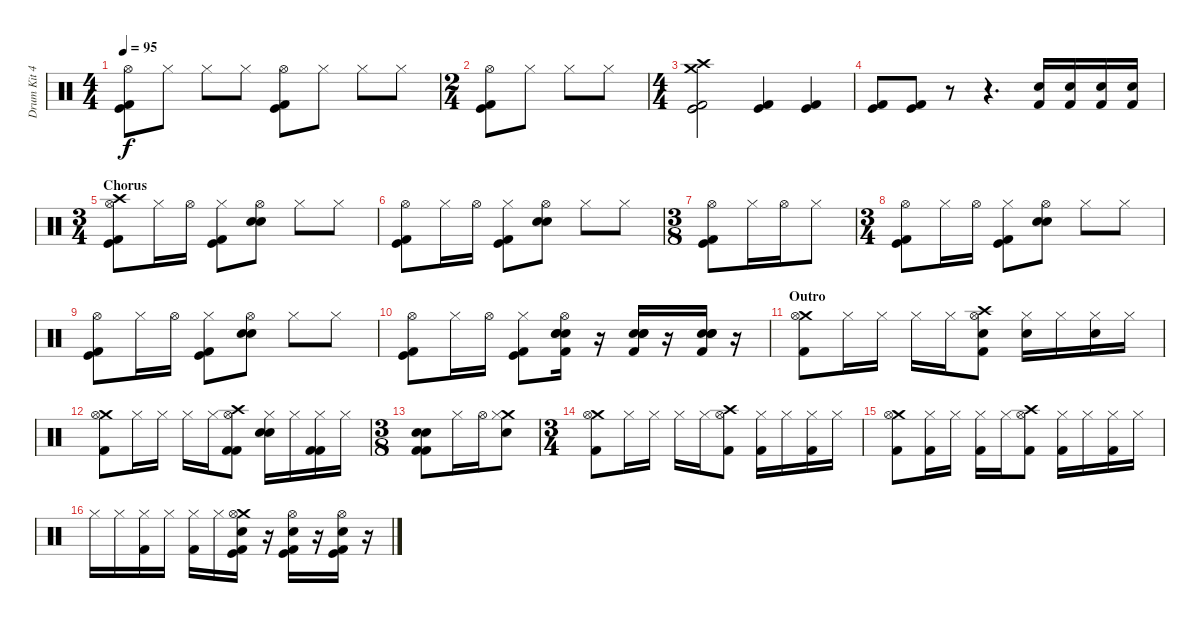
\track ("Drum Kit 42" "Drum Kit 4") {instrument percussion}
\staff {score}
\articulation defaults
\ts (4 4)
\tempo 95
\clef neutral
\ks c
("Hi-Hat (open)" "Kick (hit)" "Kick (hit) 2").8{dy f} "Hi-Hat (closed)".8 "Hi-Hat (closed)".8 "Hi-Hat (closed)".8 ("Hi-Hat (open)" "Kick (hit)" "Kick (hit) 2").8 "Hi-Hat (closed)".8 "Hi-Hat (closed)".8 "Hi-Hat (closed)".8 |
\ts (2 4)
("Hi-Hat (open)" "Kick (hit)" "Kick (hit) 2").8 "Hi-Hat (closed)".8 "Hi-Hat (closed)".8 "Hi-Hat (closed)".8 |
\ts (4 4)
("Crash high (hit)" "Crash medium (hit)" "Kick (hit)" "Kick (hit)" "Kick (hit) 2").2 ("Kick (hit) 2" "Kick (hit)").4 ("Kick (hit) 2" "Kick (hit)").4 |
("Kick (hit) 2" "Kick (hit)").8 ("Kick (hit) 2" "Kick (hit)").8 r.8 r.4{d} ("Snare (hit) 2" "Kick (hit) 2").16{volume 16} ("Snare (hit) 2" "Kick (hit) 2").16 ("Snare (hit) 2" "Kick (hit) 2").16 ("Snare (hit) 2" "Kick (hit) 2").16 |
\ts (3 4)
\section ("" "Chorus")
("Crash high (hit)" "Hi-Hat (open)" "Kick (hit)" "Kick (hit) 2").8{volume 14} "Hi-Hat (closed)".16 "Hi-Hat (open)".16 ("Hi-Hat (closed)" "Kick (hit)" "Kick (hit) 2").8 ("Hi-Hat (open)" "Snare (hit) 2" "Snare (hit) 2").8 "Hi-Hat (closed)".8 "Hi-Hat (closed)".8 |
("Hi-Hat (open)" "Kick (hit)" "Kick (hit) 2").8 "Hi-Hat (closed)".16 "Hi-Hat (open)".16 ("Hi-Hat (closed)" "Kick (hit)" "Kick (hit) 2").8 ("Hi-Hat (open)" "Snare (hit) 2" "Snare (hit) 2").8 "Hi-Hat (closed)".8 "Hi-Hat (closed)".8 |
\ts (3 8)
("Hi-Hat (open)" "Kick (hit)" "Kick (hit) 2").8 "Hi-Hat (closed)".16 "Hi-Hat (open)".16 "Hi-Hat (closed)".8 |
\ts (3 4)
("Hi-Hat (open)" "Kick (hit)" "Kick (hit) 2").8 "Hi-Hat (closed)".16 "Hi-Hat (open)".16 ("Hi-Hat (closed)" "Kick (hit)" "Kick (hit) 2").8 ("Hi-Hat (open)" "Snare (hit) 2" "Snare (hit) 2").8 "Hi-Hat (closed)".8 "Hi-Hat (closed)".8 |
("Hi-Hat (open)" "Kick (hit)" "Kick (hit) 2").8 "Hi-Hat (closed)".16 "Hi-Hat (open)".16 ("Hi-Hat (closed)" "Kick (hit)" "Kick (hit) 2").8 ("Hi-Hat (open)" "Snare (hit) 2" "Snare (hit) 2").8 "Hi-Hat (closed)".8 "Hi-Hat (closed)".8 |
("Hi-Hat (open)" "Kick (hit)" "Kick (hit) 2").8 "Hi-Hat (closed)".16 "Hi-Hat (open)".16 ("Hi-Hat (closed)" "Kick (hit)" "Kick (hit) 2").8 ("Hi-Hat (open)" "Kick (hit) 2" "Snare (hit) 2" "Snare (hit) 2" "Snare (hit) 2").16{volume 16} r.16 ("Kick (hit) 2" "Snare (hit) 2" "Snare (hit) 2" "Snare (hit) 2").16 r.16 ("Kick (hit) 2" "Snare (hit) 2" "Snare (hit) 2" "Snare (hit) 2").16 r.16 |
\section ("" "Outro")
("Crash medium (hit)" "Hi-Hat (open)" "Kick (hit) 2").8 "Hi-Hat (closed)".16 "Hi-Hat (closed)".16 "Hi-Hat (closed)".16 "Hi-Hat (closed)".16 ("Crash high (hit)" "Hi-Hat (open)" "Snare (hit) 2" "Kick (hit) 2").8 ("Hi-Hat (closed)" "Snare (hit) 2").16 "Hi-Hat (closed)".16 ("Hi-Hat (closed)" "Snare (hit) 2").16 "Hi-Hat (closed)".16 |
("Crash medium (hit)" "Hi-Hat (open)" "Kick (hit) 2").8 "Hi-Hat (closed)".16 "Hi-Hat (closed)".16 "Hi-Hat (closed)".16 "Hi-Hat (closed)".16 ("Crash high (hit)" "Hi-Hat (open)" "Kick (hit) 2" "Kick (hit) 2").8 ("Hi-Hat (closed)" "Snare (hit) 2" "Snare (hit) 2").16 "Hi-Hat (closed)".16 ("Hi-Hat (closed)" "Kick (hit) 2" "Kick (hit) 2").16 "Hi-Hat (closed)".16 |
\ts (3 8)
("Kick (hit) 2" "Kick (hit) 2" "Snare (hit) 2" "Snare (hit) 2").8 "Hi-Hat (closed)".16 "Hi-Hat (open)".16 ("Crash medium (hit)" "Hi-Hat (closed)" "Snare (hit) 2").8 |
\ts (3 4)
("Crash medium (hit)" "Hi-Hat (open)" "Kick (hit) 2").8 "Hi-Hat (closed)".16 "Hi-Hat (closed)".16 "Hi-Hat (closed)".16 "Hi-Hat (closed)".16 ("Crash high (hit)" "Hi-Hat (open)" "Kick (hit) 2").8 ("Hi-Hat (closed)" "Kick (hit) 2").16 "Hi-Hat (closed)".16 ("Hi-Hat (closed)" "Kick (hit) 2").16 "Hi-Hat (closed)".16 |
("Crash medium (hit)" "Hi-Hat (open)" "Kick (hit) 2").8 ("Hi-Hat (closed)" "Kick (hit) 2").16 "Hi-Hat (closed)".16 ("Hi-Hat (closed)" "Kick (hit) 2").16 "Hi-Hat (closed)".16 ("Crash high (hit)" "Hi-Hat (open)" "Kick (hit) 2").8 ("Hi-Hat (closed)" "Kick (hit) 2").16 "Hi-Hat (closed)".16 ("Hi-Hat (closed)" "Kick (hit) 2").16 "Hi-Hat (closed)".16 |
"Hi-Hat (closed)".16 "Hi-Hat (closed)".16 ("Hi-Hat (closed)" "Kick (hit) 2").16 "Hi-Hat (closed)".16 ("Hi-Hat (closed)" "Kick (hit) 2").16 "Hi-Hat (closed)".16 ("Crash medium (hit)" "Hi-Hat (open)" "Kick (hit)" "Snare (hit) 2" "Kick (hit) 2").16 r.16 ("Hi-Hat (open)" "Kick (hit)" "Kick (hit) 2" "Snare (hit) 2").16 r.16 ("Hi-Hat (open)" "Kick (hit)" "Kick (hit) 2" "Snare (hit) 2").16 r.16
